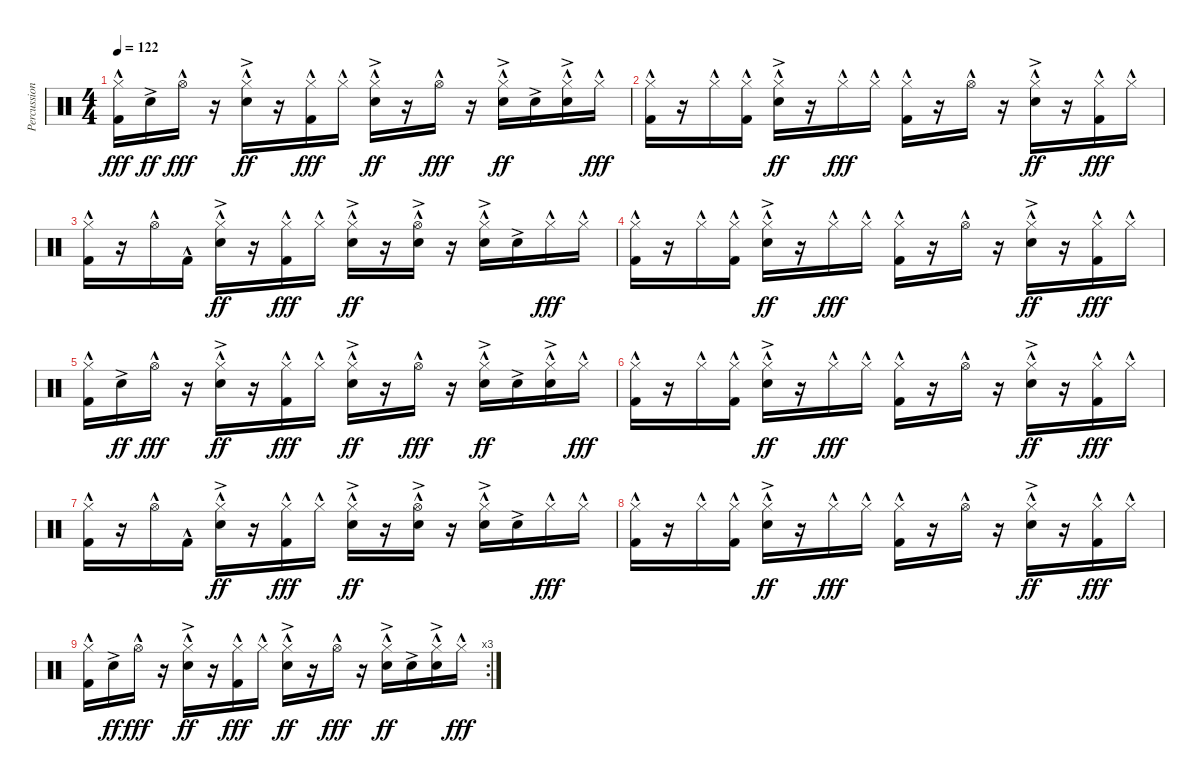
\track ("Percussion" "Percussion") {instrument percussion}
\staff {score}
\articulation defaults
\ts (4 4)
\tempo 122
\clef neutral
\ks c
("Hi-Hat (closed)"{hac} "Kick (hit) 2"{hac}).16{dy fff} "Snare (hit) 2"{ac}.16{dy ff} "Hi-Hat (open)"{hac}.16{dy fff} r.16 ("Hi-Hat (closed)"{hac} "Snare (hit) 2"{ac}).16{dy ff} r.16 ("Hi-Hat (closed)"{hac} "Kick (hit) 2"{hac}).16{dy fff} "Hi-Hat (closed)"{hac}.16 ("Hi-Hat (closed)"{hac} "Snare (hit) 2"{ac}).16{dy ff} r.16 "Hi-Hat (open)"{hac}.16{dy fff} r.16 ("Hi-Hat (closed)"{hac} "Snare (hit) 2"{ac}).16{dy ff} "Snare (hit) 2"{ac}.16 ("Hi-Hat (closed)"{hac} "Snare (hit) 2"{ac}).16 "Hi-Hat (closed)"{hac}.16{dy fff} |
("Hi-Hat (closed)"{hac} "Kick (hit) 2"{hac}).16 r.16 "Hi-Hat (closed)"{hac}.16 ("Hi-Hat (closed)"{hac} "Kick (hit) 2"{hac}).16 ("Hi-Hat (closed)"{hac} "Snare (hit) 2"{ac}).16{dy ff} r.16 "Hi-Hat (closed)"{hac}.16{dy fff} "Hi-Hat (closed)"{hac}.16 ("Hi-Hat (closed)"{hac} "Kick (hit) 2"{hac}).16 r.16 "Hi-Hat (open)"{hac}.16 r.16 ("Hi-Hat (closed)"{hac} "Snare (hit) 2"{ac}).16{dy ff} r.16 ("Hi-Hat (closed)"{hac} "Kick (hit) 2"{hac}).16{dy fff} "Hi-Hat (closed)"{hac}.16 |
("Hi-Hat (closed)"{hac} "Kick (hit) 2"{hac}).16 r.16 "Hi-Hat (open)"{hac}.16 "Kick (hit) 2"{hac}.16 ("Hi-Hat (closed)"{hac} "Snare (hit) 2"{ac}).16{dy ff} r.16 ("Hi-Hat (closed)"{hac} "Kick (hit) 2"{hac}).16{dy fff} "Hi-Hat (closed)"{hac}.16 ("Hi-Hat (closed)"{hac} "Snare (hit) 2"{ac}).16{dy ff} r.16 ("Hi-Hat (open)"{hac} "Snare (hit) 2"{ac}).16 r.16 ("Hi-Hat (closed)"{hac} "Snare (hit) 2"{ac}).16 "Snare (hit) 2"{ac}.16 "Hi-Hat (closed)"{hac}.16{dy fff} "Hi-Hat (closed)"{hac}.16 |
("Hi-Hat (closed)"{hac} "Kick (hit) 2"{hac}).16 r.16 "Hi-Hat (closed)"{hac}.16 ("Hi-Hat (closed)"{hac} "Kick (hit) 2"{hac}).16 ("Hi-Hat (closed)"{hac} "Snare (hit) 2"{ac}).16{dy ff} r.16 "Hi-Hat (closed)"{hac}.16{dy fff} "Hi-Hat (closed)"{hac}.16 ("Hi-Hat (closed)"{hac} "Kick (hit) 2"{hac}).16 r.16 "Hi-Hat (open)"{hac}.16 r.16 ("Hi-Hat (closed)"{hac} "Snare (hit) 2"{ac}).16{dy ff} r.16 ("Hi-Hat (closed)"{hac} "Kick (hit) 2"{hac}).16{dy fff} "Hi-Hat (closed)"{hac}.16 |
("Hi-Hat (closed)"{hac} "Kick (hit) 2"{hac}).16 "Snare (hit) 2"{ac}.16{dy ff} "Hi-Hat (open)"{hac}.16{dy fff} r.16 ("Hi-Hat (closed)"{hac} "Snare (hit) 2"{ac}).16{dy ff} r.16 ("Hi-Hat (closed)"{hac} "Kick (hit) 2"{hac}).16{dy fff} "Hi-Hat (closed)"{hac}.16 ("Hi-Hat (closed)"{hac} "Snare (hit) 2"{ac}).16{dy ff} r.16 "Hi-Hat (open)"{hac}.16{dy fff} r.16 ("Hi-Hat (closed)"{hac} "Snare (hit) 2"{ac}).16{dy ff} "Snare (hit) 2"{ac}.16 ("Hi-Hat (closed)"{hac} "Snare (hit) 2"{ac}).16 "Hi-Hat (closed)"{hac}.16{dy fff} |
("Hi-Hat (closed)"{hac} "Kick (hit) 2"{hac}).16 r.16 "Hi-Hat (closed)"{hac}.16 ("Hi-Hat (closed)"{hac} "Kick (hit) 2"{hac}).16 ("Hi-Hat (closed)"{hac} "Snare (hit) 2"{ac}).16{dy ff} r.16 "Hi-Hat (closed)"{hac}.16{dy fff} "Hi-Hat (closed)"{hac}.16 ("Hi-Hat (closed)"{hac} "Kick (hit) 2"{hac}).16 r.16 "Hi-Hat (open)"{hac}.16 r.16 ("Hi-Hat (closed)"{hac} "Snare (hit) 2"{ac}).16{dy ff} r.16 ("Hi-Hat (closed)"{hac} "Kick (hit) 2"{hac}).16{dy fff} "Hi-Hat (closed)"{hac}.16 |
("Hi-Hat (closed)"{hac} "Kick (hit) 2"{hac}).16 r.16 "Hi-Hat (open)"{hac}.16 "Kick (hit) 2"{hac}.16 ("Hi-Hat (closed)"{hac} "Snare (hit) 2"{ac}).16{dy ff} r.16 ("Hi-Hat (closed)"{hac} "Kick (hit) 2"{hac}).16{dy fff} "Hi-Hat (closed)"{hac}.16 ("Hi-Hat (closed)"{hac} "Snare (hit) 2"{ac}).16{dy ff} r.16 ("Hi-Hat (open)"{hac} "Snare (hit) 2"{ac}).16 r.16 ("Hi-Hat (closed)"{hac} "Snare (hit) 2"{ac}).16 "Snare (hit) 2"{ac}.16 "Hi-Hat (closed)"{hac}.16{dy fff} "Hi-Hat (closed)"{hac}.16 |
("Hi-Hat (closed)"{hac} "Kick (hit) 2"{hac}).16 r.16 "Hi-Hat (closed)"{hac}.16 ("Hi-Hat (closed)"{hac} "Kick (hit) 2"{hac}).16 ("Hi-Hat (closed)"{hac} "Snare (hit) 2"{ac}).16{dy ff} r.16 "Hi-Hat (closed)"{hac}.16{dy fff} "Hi-Hat (closed)"{hac}.16 ("Hi-Hat (closed)"{hac} "Kick (hit) 2"{hac}).16 r.16 "Hi-Hat (open)"{hac}.16 r.16 ("Hi-Hat (closed)"{hac} "Snare (hit) 2"{ac}).16{dy ff} r.16 ("Hi-Hat (closed)"{hac} "Kick (hit) 2"{hac}).16{dy fff} "Hi-Hat (closed)"{hac}.16 |
\rc 3
("Hi-Hat (closed)"{hac} "Kick (hit) 2"{hac}).16 "Snare (hit) 2"{ac}.16{dy ff} "Hi-Hat (open)"{hac}.16{dy fff} r.16 ("Hi-Hat (closed)"{hac} "Snare (hit) 2"{ac}).16{dy ff} r.16 ("Hi-Hat (closed)"{hac} "Kick (hit) 2"{hac}).16{dy fff} "Hi-Hat (closed)"{hac}.16 ("Hi-Hat (closed)"{hac} "Snare (hit) 2"{ac}).16{dy ff} r.16 "Hi-Hat (open)"{hac}.16{dy fff} r.16 ("Hi-Hat (closed)"{hac} "Snare (hit) 2"{ac}).16{dy ff} "Snare (hit) 2"{ac}.16 ("Hi-Hat (closed)"{hac} "Snare (hit) 2"{ac}).16 "Hi-Hat (closed)"{hac}.16{dy fff}
